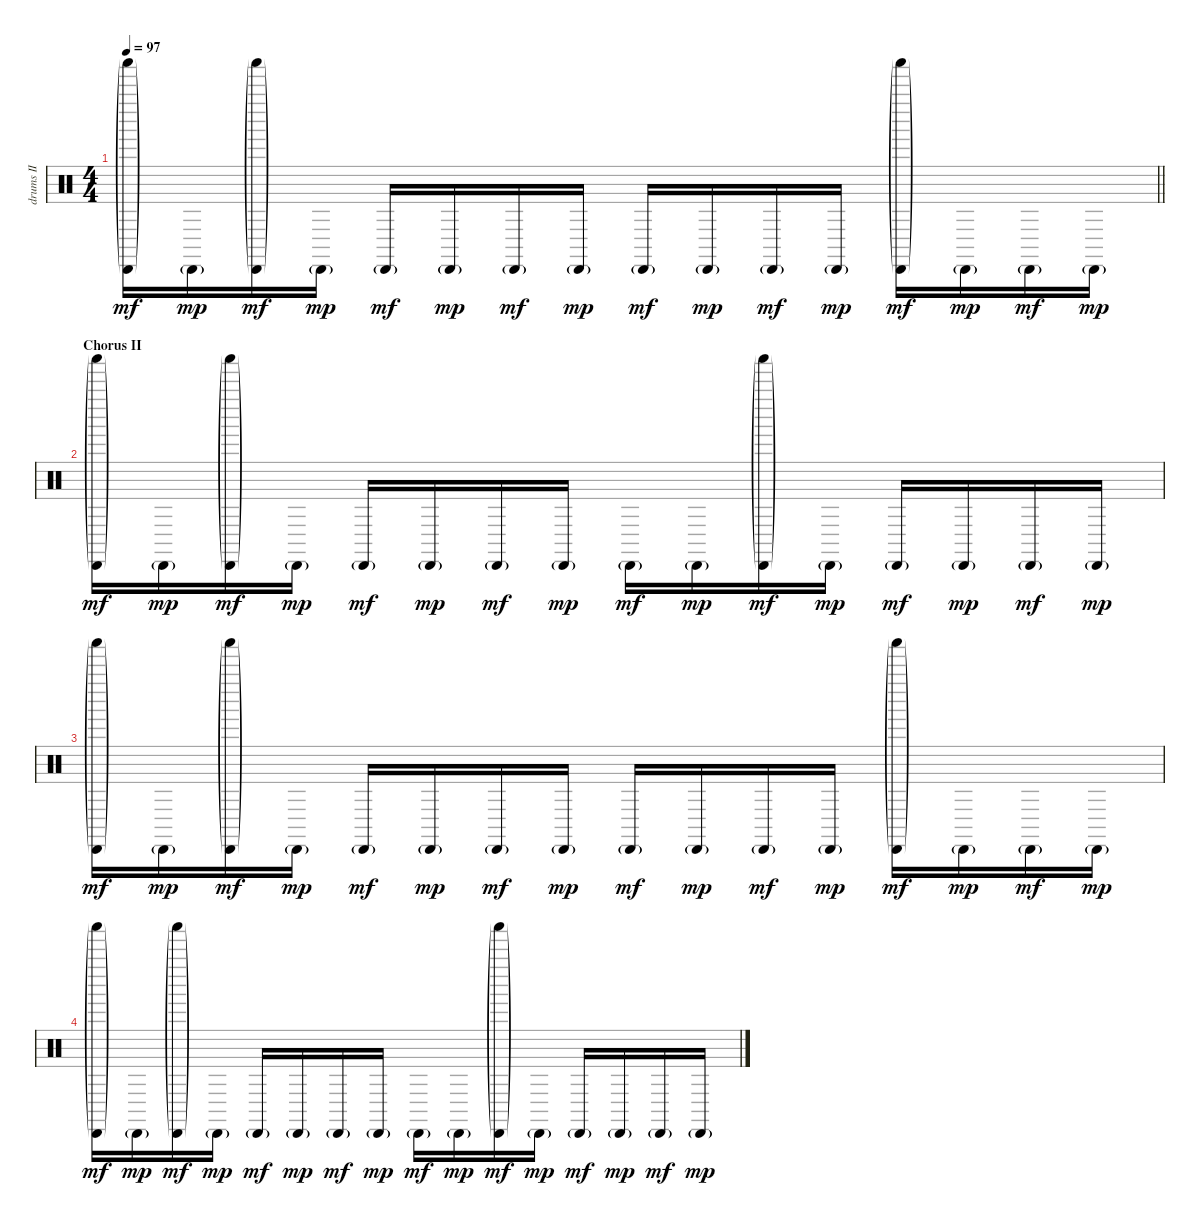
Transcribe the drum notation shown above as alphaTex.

\track ("drums II" "drums II") {instrument percussion}
\staff {score}
\articulation defaults
\ts (4 4)
\tempo 97
\clef neutral
\barLineRight lightlight
\ks c
("Shaker (hit)"{g} "Cabasa (hit)"{g}).16{dy mf} "Cabasa (hit)"{g}.16{dy mp} ("Shaker (hit)"{g} "Cabasa (hit)"{g}).16{dy mf} "Cabasa (hit)"{g}.16{dy mp} "Cabasa (hit)"{g}.16{dy mf} "Cabasa (hit)"{g}.16{dy mp} "Cabasa (hit)"{g}.16{dy mf} "Cabasa (hit)"{g}.16{dy mp} "Cabasa (hit)"{g}.16{dy mf} "Cabasa (hit)"{g}.16{dy mp} "Cabasa (hit)"{g}.16{dy mf} "Cabasa (hit)"{g}.16{dy mp} ("Shaker (hit)"{g} "Cabasa (hit)"{g}).16{dy mf} "Cabasa (hit)"{g}.16{dy mp} "Cabasa (hit)"{g}.16{dy mf} "Cabasa (hit)"{g}.16{dy mp} |
\section ("" "Chorus II")
("Shaker (hit)"{g} "Cabasa (hit)"{g}).16{dy mf} "Cabasa (hit)"{g}.16{dy mp} ("Shaker (hit)"{g} "Cabasa (hit)"{g}).16{dy mf} "Cabasa (hit)"{g}.16{dy mp} "Cabasa (hit)"{g}.16{dy mf} "Cabasa (hit)"{g}.16{dy mp} "Cabasa (hit)"{g}.16{dy mf} "Cabasa (hit)"{g}.16{dy mp} "Cabasa (hit)"{g}.16{dy mf} "Cabasa (hit)"{g}.16{dy mp} ("Shaker (hit)"{g} "Cabasa (hit)"{g}).16{dy mf} "Cabasa (hit)"{g}.16{dy mp} "Cabasa (hit)"{g}.16{dy mf} "Cabasa (hit)"{g}.16{dy mp} "Cabasa (hit)"{g}.16{dy mf} "Cabasa (hit)"{g}.16{dy mp} |
("Shaker (hit)"{g} "Cabasa (hit)"{g}).16{dy mf} "Cabasa (hit)"{g}.16{dy mp} ("Shaker (hit)"{g} "Cabasa (hit)"{g}).16{dy mf} "Cabasa (hit)"{g}.16{dy mp} "Cabasa (hit)"{g}.16{dy mf} "Cabasa (hit)"{g}.16{dy mp} "Cabasa (hit)"{g}.16{dy mf} "Cabasa (hit)"{g}.16{dy mp} "Cabasa (hit)"{g}.16{dy mf} "Cabasa (hit)"{g}.16{dy mp} "Cabasa (hit)"{g}.16{dy mf} "Cabasa (hit)"{g}.16{dy mp} ("Shaker (hit)"{g} "Cabasa (hit)"{g}).16{dy mf} "Cabasa (hit)"{g}.16{dy mp} "Cabasa (hit)"{g}.16{dy mf} "Cabasa (hit)"{g}.16{dy mp} |
("Shaker (hit)"{g} "Cabasa (hit)"{g}).16{dy mf} "Cabasa (hit)"{g}.16{dy mp} ("Shaker (hit)"{g} "Cabasa (hit)"{g}).16{dy mf} "Cabasa (hit)"{g}.16{dy mp} "Cabasa (hit)"{g}.16{dy mf} "Cabasa (hit)"{g}.16{dy mp} "Cabasa (hit)"{g}.16{dy mf} "Cabasa (hit)"{g}.16{dy mp} "Cabasa (hit)"{g}.16{dy mf} "Cabasa (hit)"{g}.16{dy mp} ("Shaker (hit)"{g} "Cabasa (hit)"{g}).16{dy mf} "Cabasa (hit)"{g}.16{dy mp} "Cabasa (hit)"{g}.16{dy mf} "Cabasa (hit)"{g}.16{dy mp} "Cabasa (hit)"{g}.16{dy mf} "Cabasa (hit)"{g}.16{dy mp}
